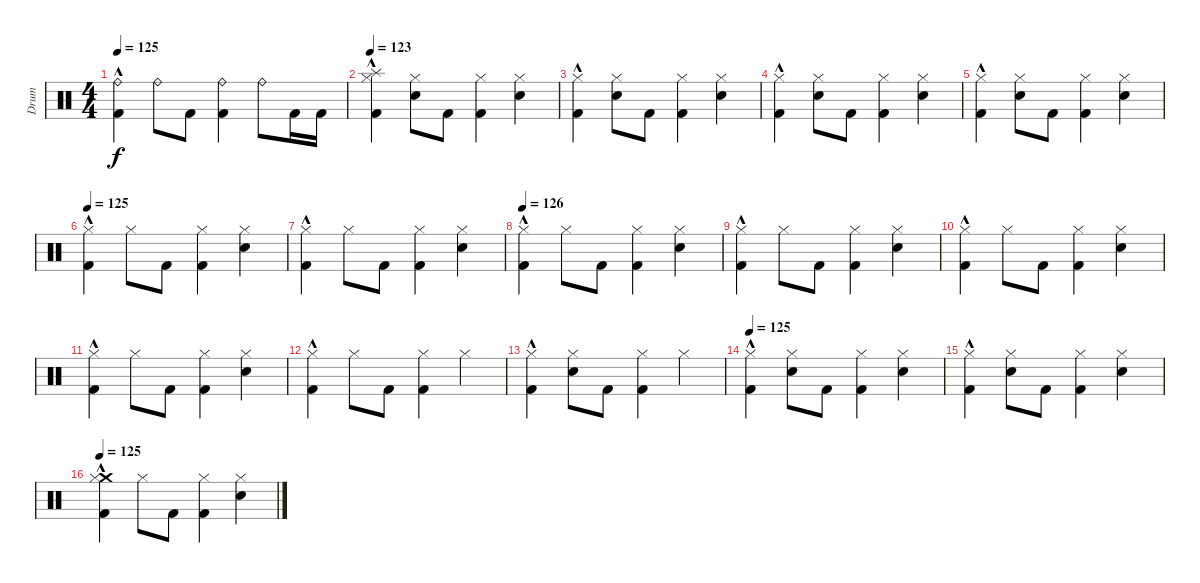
\track ("Drum" "Drum") {instrument percussion}
\staff {score}
\articulation defaults
\ts (4 4)
\tempo 125
\clef neutral
\ks c
("Ride (bell)" "Kick (hit) 2"{hac}).4{dy f} "Ride (bell)".8 "Kick (hit) 2".8 ("Ride (bell)" "Kick (hit) 2").4 "Ride (bell)".8 "Kick (hit) 2".16 "Kick (hit) 2".16 |
\tempo 123
("Hi-Hat (closed)" "Splash (hit)" "Kick (hit) 2"{hac}).4 ("Electric Snare (hit)" "Hi-Hat (closed)").8 "Kick (hit) 2".8 ("Hi-Hat (closed)" "Kick (hit) 2").4 ("Electric Snare (hit)" "Hi-Hat (closed)").4 |
("Hi-Hat (closed)" "Kick (hit) 2"{hac}).4 ("Hi-Hat (closed)" "Electric Snare (hit)").8 "Kick (hit) 2".8 ("Hi-Hat (closed)" "Kick (hit) 2").4 ("Hi-Hat (closed)" "Electric Snare (hit)").4 |
("Hi-Hat (closed)" "Kick (hit) 2"{hac}).4 ("Hi-Hat (closed)" "Electric Snare (hit)").8 "Kick (hit) 2".8 ("Hi-Hat (closed)" "Kick (hit) 2").4 ("Hi-Hat (closed)" "Electric Snare (hit)").4 |
("Hi-Hat (closed)" "Kick (hit) 2"{hac}).4 ("Hi-Hat (closed)" "Electric Snare (hit)").8 "Kick (hit) 2".8 ("Hi-Hat (closed)" "Kick (hit) 2").4 ("Hi-Hat (closed)" "Electric Snare (hit)").4 |
\tempo 125
("Hi-Hat (closed)" "Kick (hit) 2"{hac}).4 "Hi-Hat (closed)".8 "Kick (hit) 2".8 ("Hi-Hat (closed)" "Kick (hit) 2").4 ("Hi-Hat (closed)" "Electric Snare (hit)").4 |
("Hi-Hat (closed)" "Kick (hit) 2"{hac}).4 "Hi-Hat (closed)".8 "Kick (hit) 2".8 ("Hi-Hat (closed)" "Kick (hit) 2").4 ("Hi-Hat (closed)" "Electric Snare (hit)").4 |
\tempo 126
("Hi-Hat (closed)" "Kick (hit) 2"{hac}).4 "Hi-Hat (closed)".8 "Kick (hit) 2".8 ("Hi-Hat (closed)" "Kick (hit) 2").4 ("Hi-Hat (closed)" "Electric Snare (hit)").4 |
("Hi-Hat (closed)" "Kick (hit) 2"{hac}).4 "Hi-Hat (closed)".8 "Kick (hit) 2".8 ("Hi-Hat (closed)" "Kick (hit) 2").4 ("Hi-Hat (closed)" "Electric Snare (hit)").4 |
("Hi-Hat (closed)" "Kick (hit) 2"{hac}).4 "Hi-Hat (closed)".8 "Kick (hit) 2".8 ("Hi-Hat (closed)" "Kick (hit) 2").4 ("Hi-Hat (closed)" "Electric Snare (hit)").4 |
("Hi-Hat (closed)" "Kick (hit) 2"{hac}).4 "Hi-Hat (closed)".8 "Kick (hit) 2".8 ("Hi-Hat (closed)" "Kick (hit) 2").4 ("Hi-Hat (closed)" "Electric Snare (hit)").4 |
("Hi-Hat (closed)" "Kick (hit) 2"{hac}).4 "Hi-Hat (closed)".8 "Kick (hit) 2".8 ("Hi-Hat (closed)" "Kick (hit) 2").4 "Hi-Hat (closed)".4 |
("Hi-Hat (closed)" "Kick (hit) 2"{hac}).4 ("Hi-Hat (closed)" "Electric Snare (hit)").8 "Kick (hit) 2".8 ("Hi-Hat (closed)" "Kick (hit) 2").4 "Hi-Hat (closed)".4 |
\tempo 125
("Hi-Hat (closed)" "Kick (hit) 2"{hac}).4 ("Hi-Hat (closed)" "Electric Snare (hit)").8 "Kick (hit) 2".8 ("Hi-Hat (closed)" "Kick (hit) 2").4 ("Hi-Hat (closed)" "Electric Snare (hit)").4 |
("Hi-Hat (closed)" "Kick (hit) 2"{hac}).4 ("Hi-Hat (closed)" "Electric Snare (hit)").8 "Kick (hit) 2".8 ("Hi-Hat (closed)" "Kick (hit) 2").4 ("Hi-Hat (closed)" "Electric Snare (hit)").4 |
\tempo 125
("Crash medium (hit)" "Hi-Hat (closed)" "Kick (hit) 2"{hac}).4 "Hi-Hat (closed)".8 "Kick (hit) 2".8 ("Hi-Hat (closed)" "Kick (hit) 2").4 ("Hi-Hat (closed)" "Electric Snare (hit)").4
